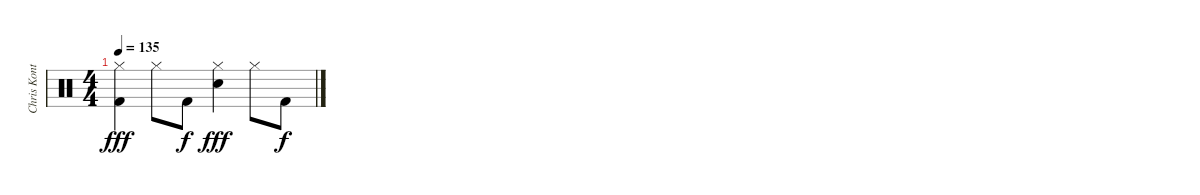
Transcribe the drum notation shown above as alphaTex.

\track ("Chris Kontos" "Chris Kont") {instrument percussion}
\staff {score}
\articulation defaults
\ts (4 4)
\tempo 135
\clef neutral
\ks c
("Hi-Hat (closed)" "Kick (hit) 2").4{dy fff volume 0} "Hi-Hat (closed)".8 "Kick (hit) 2".8{dy f} ("Electric Snare (hit)" "Hi-Hat (closed)").4{dy fff} "Hi-Hat (closed)".8 "Kick (hit) 2".8{dy f}
